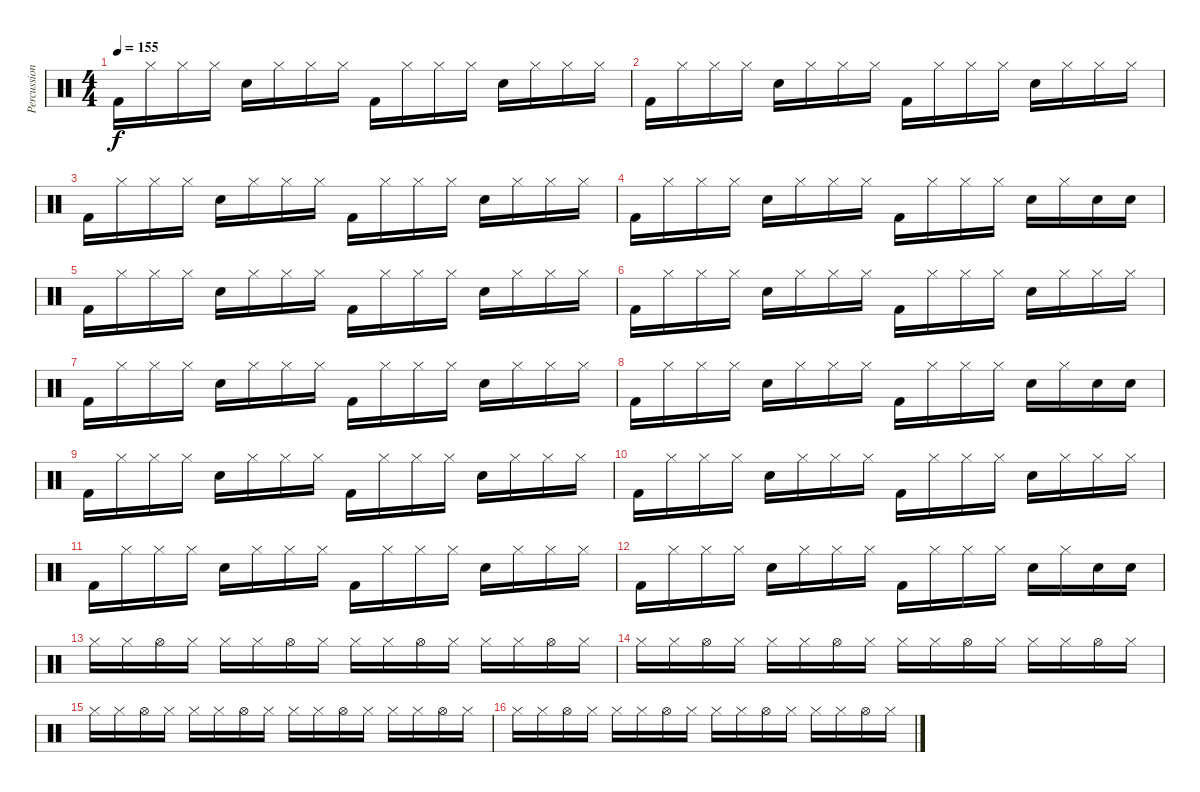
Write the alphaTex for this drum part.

\track ("Percussion" "Percussion") {instrument percussion}
\staff {score}
\articulation defaults
\ts (4 4)
\tempo 155
\clef neutral
\ks c "Kick (hit) 2".16{dy f} "Hi-Hat (closed)".16 "Hi-Hat (closed)".16 "Hi-Hat (closed)".16 "Snare (hit) 2".16 "Hi-Hat (closed)".16 "Hi-Hat (closed)".16 "Hi-Hat (closed)".16 "Kick (hit) 2".16 "Hi-Hat (closed)".16 "Hi-Hat (closed)".16 "Hi-Hat (closed)".16 "Snare (hit) 2".16 "Hi-Hat (closed)".16 "Hi-Hat (closed)".16 "Hi-Hat (closed)".16
|
"Kick (hit) 2".16 "Hi-Hat (closed)".16 "Hi-Hat (closed)".16 "Hi-Hat (closed)".16 "Snare (hit) 2".16 "Hi-Hat (closed)".16 "Hi-Hat (closed)".16 "Hi-Hat (closed)".16 "Kick (hit) 2".16 "Hi-Hat (closed)".16 "Hi-Hat (closed)".16 "Hi-Hat (closed)".16 "Snare (hit) 2".16 "Hi-Hat (closed)".16 "Hi-Hat (closed)".16 "Hi-Hat (closed)".16 |
"Kick (hit) 2".16 "Hi-Hat (closed)".16 "Hi-Hat (closed)".16 "Hi-Hat (closed)".16 "Snare (hit) 2".16 "Hi-Hat (closed)".16 "Hi-Hat (closed)".16 "Hi-Hat (closed)".16 "Kick (hit) 2".16 "Hi-Hat (closed)".16 "Hi-Hat (closed)".16 "Hi-Hat (closed)".16 "Snare (hit) 2".16 "Hi-Hat (closed)".16 "Hi-Hat (closed)".16 "Hi-Hat (closed)".16 |
"Kick (hit) 2".16 "Hi-Hat (closed)".16 "Hi-Hat (closed)".16 "Hi-Hat (closed)".16 "Snare (hit) 2".16 "Hi-Hat (closed)".16 "Hi-Hat (closed)".16 "Hi-Hat (closed)".16 "Kick (hit) 2".16 "Hi-Hat (closed)".16 "Hi-Hat (closed)".16 "Hi-Hat (closed)".16 "Snare (hit) 2".16 "Hi-Hat (closed)".16 "Snare (hit) 2".16 "Snare (hit) 2".16 |
"Kick (hit) 2".16 "Hi-Hat (closed)".16 "Hi-Hat (closed)".16 "Hi-Hat (closed)".16 "Snare (hit) 2".16 "Hi-Hat (closed)".16 "Hi-Hat (closed)".16 "Hi-Hat (closed)".16 "Kick (hit) 2".16 "Hi-Hat (closed)".16 "Hi-Hat (closed)".16 "Hi-Hat (closed)".16 "Snare (hit) 2".16 "Hi-Hat (closed)".16 "Hi-Hat (closed)".16 "Hi-Hat (closed)".16 |
"Kick (hit) 2".16 "Hi-Hat (closed)".16 "Hi-Hat (closed)".16 "Hi-Hat (closed)".16 "Snare (hit) 2".16 "Hi-Hat (closed)".16 "Hi-Hat (closed)".16 "Hi-Hat (closed)".16 "Kick (hit) 2".16 "Hi-Hat (closed)".16 "Hi-Hat (closed)".16 "Hi-Hat (closed)".16 "Snare (hit) 2".16 "Hi-Hat (closed)".16 "Hi-Hat (closed)".16 "Hi-Hat (closed)".16 |
"Kick (hit) 2".16 "Hi-Hat (closed)".16 "Hi-Hat (closed)".16 "Hi-Hat (closed)".16 "Snare (hit) 2".16 "Hi-Hat (closed)".16 "Hi-Hat (closed)".16 "Hi-Hat (closed)".16 "Kick (hit) 2".16 "Hi-Hat (closed)".16 "Hi-Hat (closed)".16 "Hi-Hat (closed)".16 "Snare (hit) 2".16 "Hi-Hat (closed)".16 "Hi-Hat (closed)".16 "Hi-Hat (closed)".16 |
"Kick (hit) 2".16 "Hi-Hat (closed)".16 "Hi-Hat (closed)".16 "Hi-Hat (closed)".16 "Snare (hit) 2".16 "Hi-Hat (closed)".16 "Hi-Hat (closed)".16 "Hi-Hat (closed)".16 "Kick (hit) 2".16 "Hi-Hat (closed)".16 "Hi-Hat (closed)".16 "Hi-Hat (closed)".16 "Snare (hit) 2".16 "Hi-Hat (closed)".16 "Snare (hit) 2".16 "Snare (hit) 2".16 |
"Kick (hit) 2".16 "Hi-Hat (closed)".16 "Hi-Hat (closed)".16 "Hi-Hat (closed)".16 "Snare (hit) 2".16 "Hi-Hat (closed)".16 "Hi-Hat (closed)".16 "Hi-Hat (closed)".16 "Kick (hit) 2".16 "Hi-Hat (closed)".16 "Hi-Hat (closed)".16 "Hi-Hat (closed)".16 "Snare (hit) 2".16 "Hi-Hat (closed)".16 "Hi-Hat (closed)".16 "Hi-Hat (closed)".16 |
"Kick (hit) 2".16 "Hi-Hat (closed)".16 "Hi-Hat (closed)".16 "Hi-Hat (closed)".16 "Snare (hit) 2".16 "Hi-Hat (closed)".16 "Hi-Hat (closed)".16 "Hi-Hat (closed)".16 "Kick (hit) 2".16 "Hi-Hat (closed)".16 "Hi-Hat (closed)".16 "Hi-Hat (closed)".16 "Snare (hit) 2".16 "Hi-Hat (closed)".16 "Hi-Hat (closed)".16 "Hi-Hat (closed)".16 |
"Kick (hit) 2".16 "Hi-Hat (closed)".16 "Hi-Hat (closed)".16 "Hi-Hat (closed)".16 "Snare (hit) 2".16 "Hi-Hat (closed)".16 "Hi-Hat (closed)".16 "Hi-Hat (closed)".16 "Kick (hit) 2".16 "Hi-Hat (closed)".16 "Hi-Hat (closed)".16 "Hi-Hat (closed)".16 "Snare (hit) 2".16 "Hi-Hat (closed)".16 "Hi-Hat (closed)".16 "Hi-Hat (closed)".16 |
"Kick (hit) 2".16 "Hi-Hat (closed)".16 "Hi-Hat (closed)".16 "Hi-Hat (closed)".16 "Snare (hit) 2".16 "Hi-Hat (closed)".16 "Hi-Hat (closed)".16 "Hi-Hat (closed)".16 "Kick (hit) 2".16 "Hi-Hat (closed)".16 "Hi-Hat (closed)".16 "Hi-Hat (closed)".16 "Snare (hit) 2".16 "Hi-Hat (closed)".16 "Snare (hit) 2".16 "Snare (hit) 2".16 |
"Hi-Hat (closed)".16 "Hi-Hat (closed)".16 "Hi-Hat (open)".16 "Hi-Hat (closed)".16 "Hi-Hat (closed)".16 "Hi-Hat (closed)".16 "Hi-Hat (open)".16 "Hi-Hat (closed)".16 "Hi-Hat (closed)".16 "Hi-Hat (closed)".16 "Hi-Hat (open)".16 "Hi-Hat (closed)".16 "Hi-Hat (closed)".16 "Hi-Hat (closed)".16 "Hi-Hat (open)".16 "Hi-Hat (closed)".16 |
"Hi-Hat (closed)".16 "Hi-Hat (closed)".16 "Hi-Hat (open)".16 "Hi-Hat (closed)".16 "Hi-Hat (closed)".16 "Hi-Hat (closed)".16 "Hi-Hat (open)".16 "Hi-Hat (closed)".16 "Hi-Hat (closed)".16 "Hi-Hat (closed)".16 "Hi-Hat (open)".16 "Hi-Hat (closed)".16 "Hi-Hat (closed)".16 "Hi-Hat (closed)".16 "Hi-Hat (open)".16 "Hi-Hat (closed)".16 |
"Hi-Hat (closed)".16 "Hi-Hat (closed)".16 "Hi-Hat (open)".16 "Hi-Hat (closed)".16 "Hi-Hat (closed)".16 "Hi-Hat (closed)".16 "Hi-Hat (open)".16 "Hi-Hat (closed)".16 "Hi-Hat (closed)".16 "Hi-Hat (closed)".16 "Hi-Hat (open)".16 "Hi-Hat (closed)".16 "Hi-Hat (closed)".16 "Hi-Hat (closed)".16 "Hi-Hat (open)".16 "Hi-Hat (closed)".16 |
"Hi-Hat (closed)".16 "Hi-Hat (closed)".16 "Hi-Hat (open)".16 "Hi-Hat (closed)".16 "Hi-Hat (closed)".16 "Hi-Hat (closed)".16 "Hi-Hat (open)".16 "Hi-Hat (closed)".16 "Hi-Hat (closed)".16 "Hi-Hat (closed)".16 "Hi-Hat (open)".16 "Hi-Hat (closed)".16 "Hi-Hat (closed)".16 "Hi-Hat (closed)".16 "Hi-Hat (open)".16 "Hi-Hat (closed)".16
